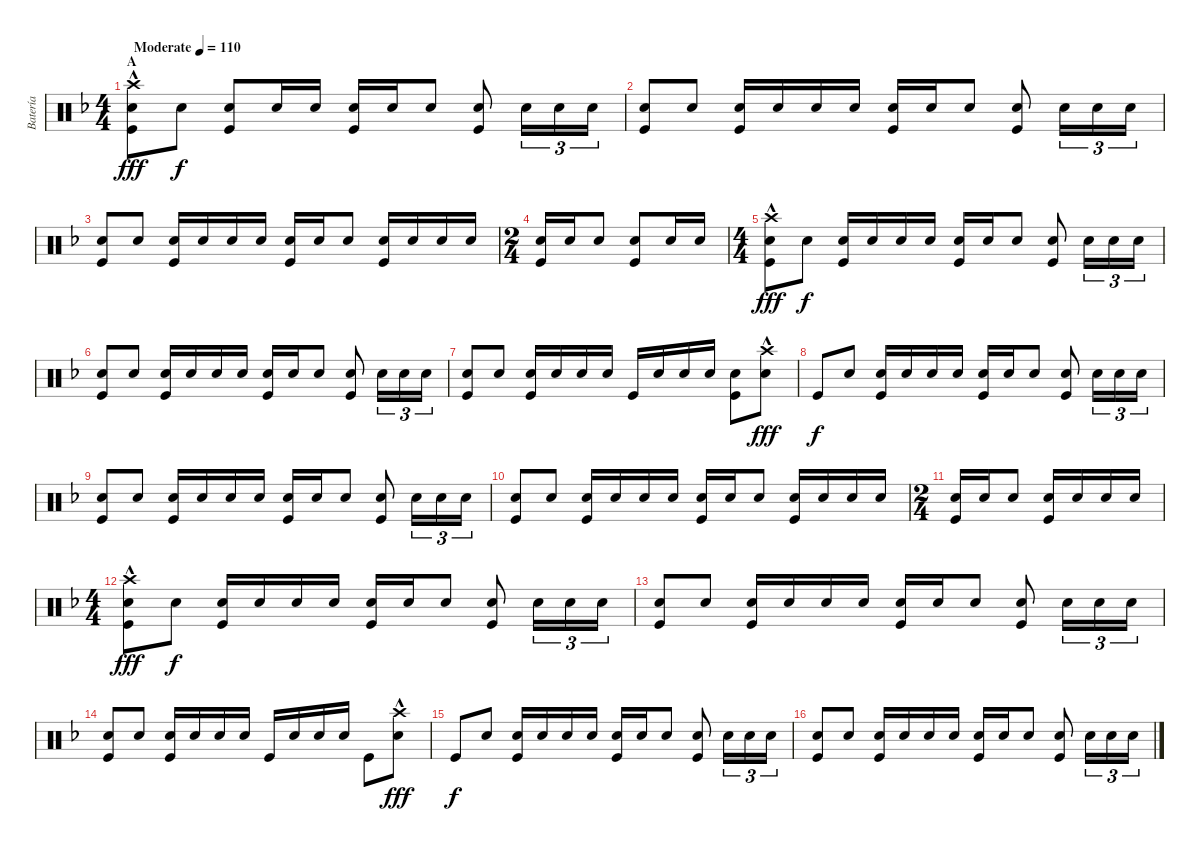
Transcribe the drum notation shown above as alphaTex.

\track ("Batería" "Batería") {instrument percussion}
\staff {score}
\articulation defaults
\ts (4 4)
\section ("" "A")
\tempo (110 "Moderate")
\clef neutral
\ks f
("Crash high (hit)"{hac} "Kick (hit)" "Snare (hit) 2").8{dy fff} "Snare (hit) 2".8{dy f} ("Kick (hit)" "Snare (hit) 2").8 "Snare (hit) 2".16 "Snare (hit) 2".16 ("Snare (hit) 2" "Kick (hit)").16 "Snare (hit) 2".16 "Snare (hit) 2".8 ("Snare (hit) 2" "Kick (hit)").8 "Snare (hit) 2".16{tu (3 2)} "Snare (hit) 2".16{tu (3 2)} "Snare (hit) 2".16{tu (3 2)} |
("Snare (hit) 2" "Kick (hit)").8 "Snare (hit) 2".8 ("Snare (hit) 2" "Kick (hit)").16 "Snare (hit) 2".16 "Snare (hit) 2".16 "Snare (hit) 2".16 ("Snare (hit) 2" "Kick (hit)").16 "Snare (hit) 2".16 "Snare (hit) 2".8 ("Snare (hit) 2" "Kick (hit)").8 "Snare (hit) 2".16{tu (3 2)} "Snare (hit) 2".16{tu (3 2)} "Snare (hit) 2".16{tu (3 2)} |
("Snare (hit) 2" "Kick (hit)").8 "Snare (hit) 2".8 ("Snare (hit) 2" "Kick (hit)").16 "Snare (hit) 2".16 "Snare (hit) 2".16 "Snare (hit) 2".16 ("Snare (hit) 2" "Kick (hit)").16 "Snare (hit) 2".16 "Snare (hit) 2".8 ("Snare (hit) 2" "Kick (hit)").16 "Snare (hit) 2".16 "Snare (hit) 2".16 "Snare (hit) 2".16 |
\ts (2 4)
("Snare (hit) 2" "Kick (hit)").16 "Snare (hit) 2".16 "Snare (hit) 2".8 ("Kick (hit)" "Snare (hit) 2").8 "Snare (hit) 2".16 "Snare (hit) 2".16 |
\ts (4 4)
("Crash high (hit)"{hac} "Kick (hit)" "Snare (hit) 2").8{dy fff} "Snare (hit) 2".8{dy f} ("Snare (hit) 2" "Kick (hit)").16 "Snare (hit) 2".16 "Snare (hit) 2".16 "Snare (hit) 2".16 ("Snare (hit) 2" "Kick (hit)").16 "Snare (hit) 2".16 "Snare (hit) 2".8 ("Snare (hit) 2" "Kick (hit)").8 "Snare (hit) 2".16{tu (3 2)} "Snare (hit) 2".16{tu (3 2)} "Snare (hit) 2".16{tu (3 2)} |
("Kick (hit)" "Snare (hit) 2").8 "Snare (hit) 2".8 ("Snare (hit) 2" "Kick (hit)").16 "Snare (hit) 2".16 "Snare (hit) 2".16 "Snare (hit) 2".16 ("Snare (hit) 2" "Kick (hit)").16 "Snare (hit) 2".16 "Snare (hit) 2".8 ("Snare (hit) 2" "Kick (hit)").8 "Snare (hit) 2".16{tu (3 2)} "Snare (hit) 2".16{tu (3 2)} "Snare (hit) 2".16{tu (3 2)} |
("Kick (hit)" "Snare (hit) 2").8 "Snare (hit) 2".8 ("Snare (hit) 2" "Kick (hit)").16 "Snare (hit) 2".16 "Snare (hit) 2".16 "Snare (hit) 2".16 "Kick (hit)".16 "Snare (hit) 2".16 "Snare (hit) 2".16 "Snare (hit) 2".16 ("Kick (hit)" "Snare (hit) 2").8 ("Snare (hit) 2" "Crash high (hit)"{hac}).8{dy fff} |
"Kick (hit)".8{dy f} "Snare (hit) 2".8 ("Snare (hit) 2" "Kick (hit)").16 "Snare (hit) 2".16 "Snare (hit) 2".16 "Snare (hit) 2".16 ("Snare (hit) 2" "Kick (hit)").16 "Snare (hit) 2".16 "Snare (hit) 2".8 ("Snare (hit) 2" "Kick (hit)").8 "Snare (hit) 2".16{tu (3 2)} "Snare (hit) 2".16{tu (3 2)} "Snare (hit) 2".16{tu (3 2)} |
("Kick (hit)" "Snare (hit) 2").8 "Snare (hit) 2".8 ("Snare (hit) 2" "Kick (hit)").16 "Snare (hit) 2".16 "Snare (hit) 2".16 "Snare (hit) 2".16 ("Snare (hit) 2" "Kick (hit)").16 "Snare (hit) 2".16 "Snare (hit) 2".8 ("Snare (hit) 2" "Kick (hit)").8 "Snare (hit) 2".16{tu (3 2)} "Snare (hit) 2".16{tu (3 2)} "Snare (hit) 2".16{tu (3 2)} |
("Kick (hit)" "Snare (hit) 2").8 "Snare (hit) 2".8 ("Snare (hit) 2" "Kick (hit)").16 "Snare (hit) 2".16 "Snare (hit) 2".16 "Snare (hit) 2".16 ("Snare (hit) 2" "Kick (hit)").16 "Snare (hit) 2".16 "Snare (hit) 2".8 ("Snare (hit) 2" "Kick (hit)").16 "Snare (hit) 2".16 "Snare (hit) 2".16 "Snare (hit) 2".16 |
\ts (2 4)
("Snare (hit) 2" "Kick (hit)").16 "Snare (hit) 2".16 "Snare (hit) 2".8 ("Snare (hit) 2" "Kick (hit)").16 "Snare (hit) 2".16 "Snare (hit) 2".16 "Snare (hit) 2".16 |
\ts (4 4)
("Crash high (hit)"{hac} "Kick (hit)" "Snare (hit) 2").8{dy fff} "Snare (hit) 2".8{dy f} ("Snare (hit) 2" "Kick (hit)").16 "Snare (hit) 2".16 "Snare (hit) 2".16 "Snare (hit) 2".16 ("Snare (hit) 2" "Kick (hit)").16 "Snare (hit) 2".16 "Snare (hit) 2".8 ("Snare (hit) 2" "Kick (hit)").8 "Snare (hit) 2".16{tu (3 2)} "Snare (hit) 2".16{tu (3 2)} "Snare (hit) 2".16{tu (3 2)} |
("Kick (hit)" "Snare (hit) 2").8 "Snare (hit) 2".8 ("Snare (hit) 2" "Kick (hit)").16 "Snare (hit) 2".16 "Snare (hit) 2".16 "Snare (hit) 2".16 ("Snare (hit) 2" "Kick (hit)").16 "Snare (hit) 2".16 "Snare (hit) 2".8 ("Snare (hit) 2" "Kick (hit)").8 "Snare (hit) 2".16{tu (3 2)} "Snare (hit) 2".16{tu (3 2)} "Snare (hit) 2".16{tu (3 2)} |
("Kick (hit)" "Snare (hit) 2").8 "Snare (hit) 2".8 ("Snare (hit) 2" "Kick (hit)").16 "Snare (hit) 2".16 "Snare (hit) 2".16 "Snare (hit) 2".16 "Kick (hit)".16 "Snare (hit) 2".16 "Snare (hit) 2".16 "Snare (hit) 2".16 "Kick (hit)".8 ("Snare (hit) 2" "Crash high (hit)"{hac}).8{dy fff} |
"Kick (hit)".8{dy f} "Snare (hit) 2".8 ("Snare (hit) 2" "Kick (hit)").16 "Snare (hit) 2".16 "Snare (hit) 2".16 "Snare (hit) 2".16 ("Snare (hit) 2" "Kick (hit)").16 "Snare (hit) 2".16 "Snare (hit) 2".8 ("Snare (hit) 2" "Kick (hit)").8 "Snare (hit) 2".16{tu (3 2)} "Snare (hit) 2".16{tu (3 2)} "Snare (hit) 2".16{tu (3 2)} |
("Kick (hit)" "Snare (hit) 2").8 "Snare (hit) 2".8 ("Snare (hit) 2" "Kick (hit)").16 "Snare (hit) 2".16 "Snare (hit) 2".16 "Snare (hit) 2".16 ("Snare (hit) 2" "Kick (hit)").16 "Snare (hit) 2".16 "Snare (hit) 2".8 ("Snare (hit) 2" "Kick (hit)").8 "Snare (hit) 2".16{tu (3 2)} "Snare (hit) 2".16{tu (3 2)} "Snare (hit) 2".16{tu (3 2)}
